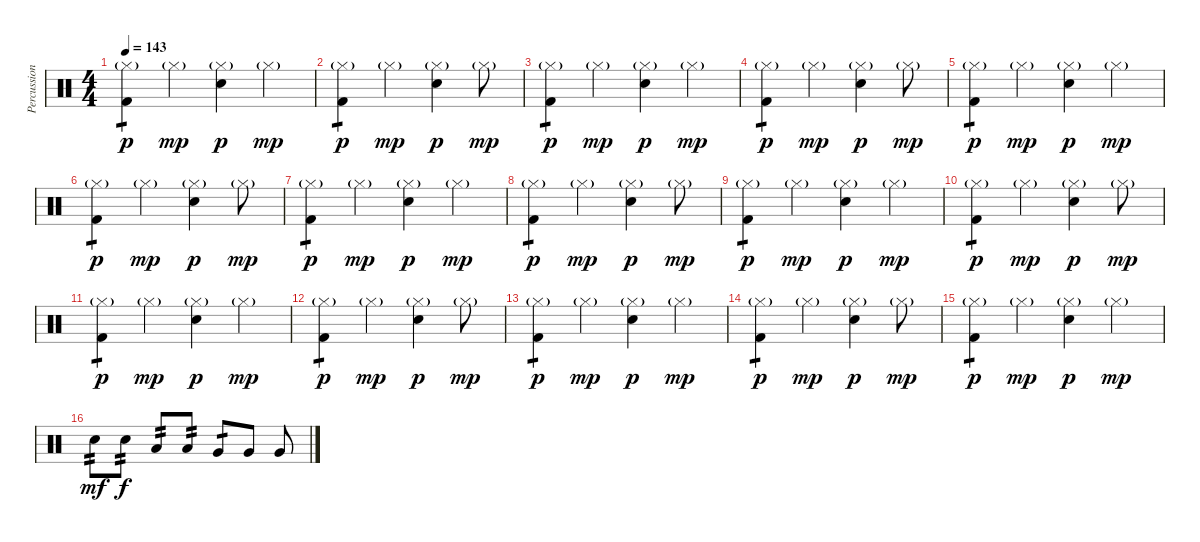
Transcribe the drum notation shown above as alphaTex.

\track ("Percussion" "Percussion") {instrument percussion}
\staff {score}
\articulation defaults
\ts (4 4)
\tempo 143
\clef neutral
\ks c
("Hi-Hat (closed)"{g} "Kick (hit) 2").4{tp 1 dy p} "Hi-Hat (closed)"{g}.4{dy mp} ("Electric Snare (hit)" "Hi-Hat (closed)"{g}).4{dy p} "Hi-Hat (closed)"{g}.4{dy mp} |
("Hi-Hat (closed)"{g} "Kick (hit) 2").4{tp 1 dy p} "Hi-Hat (closed)"{g}.4{dy mp} ("Electric Snare (hit)" "Hi-Hat (closed)"{g}).4{dy p} "Hi-Hat (closed)"{g}.8{dy mp} |
("Hi-Hat (closed)"{g} "Kick (hit) 2").4{tp 1 dy p} "Hi-Hat (closed)"{g}.4{dy mp} ("Electric Snare (hit)" "Hi-Hat (closed)"{g}).4{dy p} "Hi-Hat (closed)"{g}.4{dy mp} |
("Hi-Hat (closed)"{g} "Kick (hit) 2").4{tp 1 dy p} "Hi-Hat (closed)"{g}.4{dy mp} ("Electric Snare (hit)" "Hi-Hat (closed)"{g}).4{dy p} "Hi-Hat (closed)"{g}.8{dy mp} |
("Hi-Hat (closed)"{g} "Kick (hit) 2").4{tp 1 dy p} "Hi-Hat (closed)"{g}.4{dy mp} ("Electric Snare (hit)" "Hi-Hat (closed)"{g}).4{dy p} "Hi-Hat (closed)"{g}.4{dy mp} |
("Hi-Hat (closed)"{g} "Kick (hit) 2").4{tp 1 dy p} "Hi-Hat (closed)"{g}.4{dy mp} ("Electric Snare (hit)" "Hi-Hat (closed)"{g}).4{dy p} "Hi-Hat (closed)"{g}.8{dy mp} |
("Hi-Hat (closed)"{g} "Kick (hit) 2").4{tp 1 dy p} "Hi-Hat (closed)"{g}.4{dy mp} ("Electric Snare (hit)" "Hi-Hat (closed)"{g}).4{dy p} "Hi-Hat (closed)"{g}.4{dy mp} |
("Hi-Hat (closed)"{g} "Kick (hit) 2").4{tp 1 dy p} "Hi-Hat (closed)"{g}.4{dy mp} ("Electric Snare (hit)" "Hi-Hat (closed)"{g}).4{dy p} "Hi-Hat (closed)"{g}.8{dy mp} |
("Hi-Hat (closed)"{g} "Kick (hit) 2").4{tp 1 dy p} "Hi-Hat (closed)"{g}.4{dy mp} ("Electric Snare (hit)" "Hi-Hat (closed)"{g}).4{dy p} "Hi-Hat (closed)"{g}.4{dy mp} |
("Hi-Hat (closed)"{g} "Kick (hit) 2").4{tp 1 dy p} "Hi-Hat (closed)"{g}.4{dy mp} ("Electric Snare (hit)" "Hi-Hat (closed)"{g}).4{dy p} "Hi-Hat (closed)"{g}.8{dy mp} |
("Hi-Hat (closed)"{g} "Kick (hit) 2").4{tp 1 dy p} "Hi-Hat (closed)"{g}.4{dy mp} ("Electric Snare (hit)" "Hi-Hat (closed)"{g}).4{dy p} "Hi-Hat (closed)"{g}.4{dy mp} |
("Hi-Hat (closed)"{g} "Kick (hit) 2").4{tp 1 dy p} "Hi-Hat (closed)"{g}.4{dy mp} ("Electric Snare (hit)" "Hi-Hat (closed)"{g}).4{dy p} "Hi-Hat (closed)"{g}.8{dy mp} |
("Hi-Hat (closed)"{g} "Kick (hit) 2").4{tp 1 dy p} "Hi-Hat (closed)"{g}.4{dy mp} ("Electric Snare (hit)" "Hi-Hat (closed)"{g}).4{dy p} "Hi-Hat (closed)"{g}.4{dy mp} |
("Hi-Hat (closed)"{g} "Kick (hit) 2").4{tp 1 dy p} "Hi-Hat (closed)"{g}.4{dy mp} ("Electric Snare (hit)" "Hi-Hat (closed)"{g}).4{dy p} "Hi-Hat (closed)"{g}.8{dy mp} |
("Hi-Hat (closed)"{g} "Kick (hit) 2").4{tp 1 dy p} "Hi-Hat (closed)"{g}.4{dy mp} ("Electric Snare (hit)" "Hi-Hat (closed)"{g}).4{dy p} "Hi-Hat (closed)"{g}.4{dy mp} |
"Electric Snare (hit)".8{tp 2 dy mf} "Electric Snare (hit)".8{tp 2 dy f} "Low Floor Tom (hit)".8{tp 2} "Low Floor Tom (hit)".8{tp 2} "Very Low Tom (hit)".8{tp 1} "Very Low Tom (hit)".8 "Very Low Tom (hit)".8
